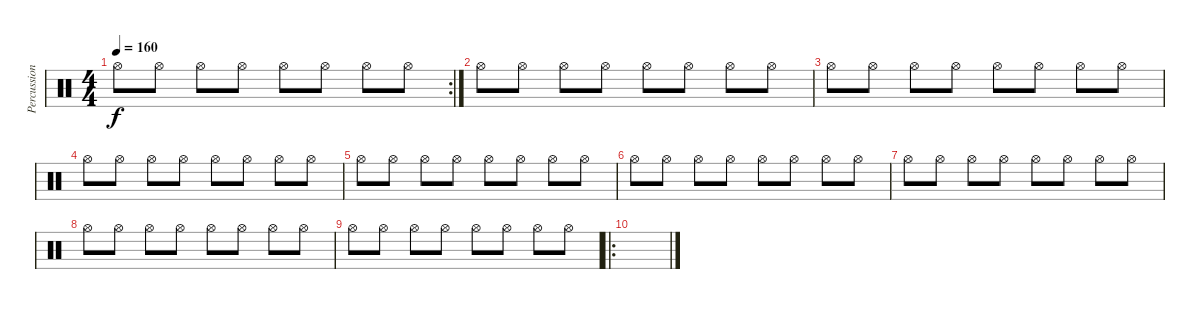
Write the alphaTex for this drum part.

\track ("Percussion" "Percussion") {instrument percussion}
\staff {score}
\articulation defaults
\rc 2
\ts (4 4)
\tempo 160
\clef neutral
\ks c "Hi-Hat (open)".8{dy f} "Hi-Hat (open)".8 "Hi-Hat (open)".8 "Hi-Hat (open)".8 "Hi-Hat (open)".8 "Hi-Hat (open)".8 "Hi-Hat (open)".8 "Hi-Hat (open)".8
|
"Hi-Hat (open)".8 "Hi-Hat (open)".8 "Hi-Hat (open)".8 "Hi-Hat (open)".8 "Hi-Hat (open)".8 "Hi-Hat (open)".8 "Hi-Hat (open)".8 "Hi-Hat (open)".8 |
"Hi-Hat (open)".8 "Hi-Hat (open)".8 "Hi-Hat (open)".8 "Hi-Hat (open)".8 "Hi-Hat (open)".8 "Hi-Hat (open)".8 "Hi-Hat (open)".8 "Hi-Hat (open)".8 |
"Hi-Hat (open)".8 "Hi-Hat (open)".8 "Hi-Hat (open)".8 "Hi-Hat (open)".8 "Hi-Hat (open)".8 "Hi-Hat (open)".8 "Hi-Hat (open)".8 "Hi-Hat (open)".8 |
"Hi-Hat (open)".8 "Hi-Hat (open)".8 "Hi-Hat (open)".8 "Hi-Hat (open)".8 "Hi-Hat (open)".8 "Hi-Hat (open)".8 "Hi-Hat (open)".8 "Hi-Hat (open)".8 |
"Hi-Hat (open)".8 "Hi-Hat (open)".8 "Hi-Hat (open)".8 "Hi-Hat (open)".8 "Hi-Hat (open)".8 "Hi-Hat (open)".8 "Hi-Hat (open)".8 "Hi-Hat (open)".8 |
"Hi-Hat (open)".8 "Hi-Hat (open)".8 "Hi-Hat (open)".8 "Hi-Hat (open)".8 "Hi-Hat (open)".8 "Hi-Hat (open)".8 "Hi-Hat (open)".8 "Hi-Hat (open)".8 |
"Hi-Hat (open)".8 "Hi-Hat (open)".8 "Hi-Hat (open)".8 "Hi-Hat (open)".8 "Hi-Hat (open)".8 "Hi-Hat (open)".8 "Hi-Hat (open)".8 "Hi-Hat (open)".8 |
"Hi-Hat (open)".8 "Hi-Hat (open)".8 "Hi-Hat (open)".8 "Hi-Hat (open)".8 "Hi-Hat (open)".8 "Hi-Hat (open)".8 "Hi-Hat (open)".8 "Hi-Hat (open)".8 |
\ro
